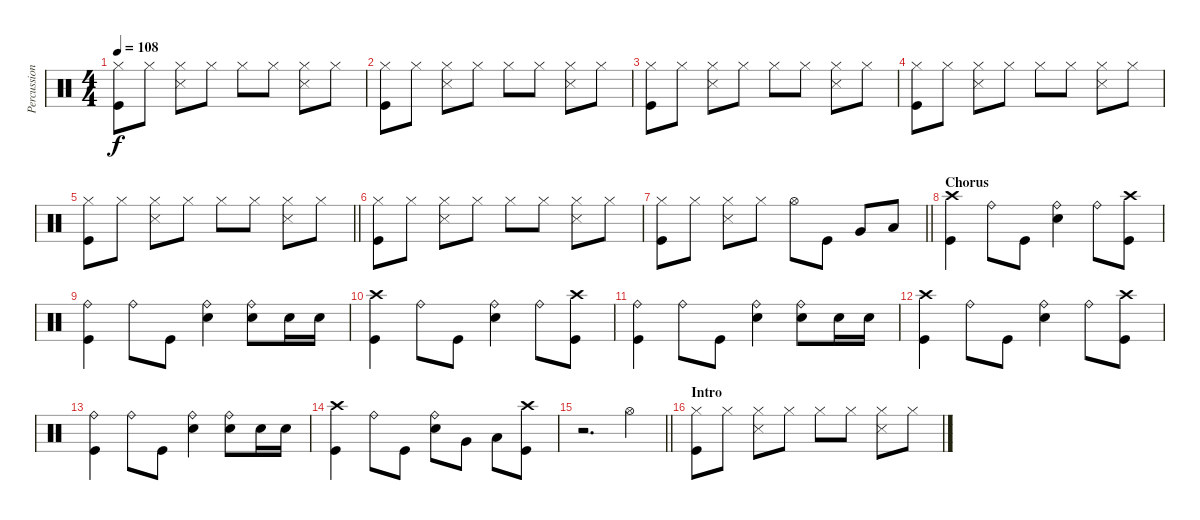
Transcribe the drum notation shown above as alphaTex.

\track ("Percussion" "Percussion") {instrument percussion}
\staff {score}
\articulation defaults
\ts (4 4)
\tempo 108
\clef neutral
\ks c
("Hi-Hat (closed)" "Kick (hit)").8{dy f} "Hi-Hat (closed)".8 ("Hi-Hat (closed)" "Snare (side stick) 3").8 "Hi-Hat (closed)".8 "Hi-Hat (closed)".8 "Hi-Hat (closed)".8 ("Hi-Hat (closed)" "Snare (side stick) 3").8 "Hi-Hat (closed)".8 |
("Hi-Hat (closed)" "Kick (hit)").8 "Hi-Hat (closed)".8 ("Hi-Hat (closed)" "Snare (side stick) 3").8 "Hi-Hat (closed)".8 "Hi-Hat (closed)".8 "Hi-Hat (closed)".8 ("Hi-Hat (closed)" "Snare (side stick) 3").8 "Hi-Hat (closed)".8 |
("Hi-Hat (closed)" "Kick (hit)").8 "Hi-Hat (closed)".8 ("Hi-Hat (closed)" "Snare (side stick) 3").8 "Hi-Hat (closed)".8 "Hi-Hat (closed)".8 "Hi-Hat (closed)".8 ("Hi-Hat (closed)" "Snare (side stick) 3").8 "Hi-Hat (closed)".8 |
("Hi-Hat (closed)" "Kick (hit)").8 "Hi-Hat (closed)".8 ("Hi-Hat (closed)" "Snare (side stick) 3").8 "Hi-Hat (closed)".8 "Hi-Hat (closed)".8 "Hi-Hat (closed)".8 ("Hi-Hat (closed)" "Snare (side stick) 3").8 "Hi-Hat (closed)".8 |
\barLineRight lightlight
("Hi-Hat (closed)" "Kick (hit)").8 "Hi-Hat (closed)".8 ("Hi-Hat (closed)" "Snare (side stick) 3").8 "Hi-Hat (closed)".8 "Hi-Hat (closed)".8 "Hi-Hat (closed)".8 ("Hi-Hat (closed)" "Snare (side stick) 3").8 "Hi-Hat (closed)".8 |
("Hi-Hat (closed)" "Kick (hit)").8 "Hi-Hat (closed)".8 ("Hi-Hat (closed)" "Snare (side stick) 3").8 "Hi-Hat (closed)".8 "Hi-Hat (closed)".8 "Hi-Hat (closed)".8 ("Hi-Hat (closed)" "Snare (side stick) 3").8 "Hi-Hat (closed)".8 |
\barLineRight lightlight
("Hi-Hat (closed)" "Kick (hit)").8 "Hi-Hat (closed)".8 ("Hi-Hat (closed)" "Snare (side stick) 3").8 "Hi-Hat (closed)".8 "Hi-Hat (open)".8 "Kick (hit)".8 "Very Low Tom (hit)".8 "Low Floor Tom (hit)".8 |
\section ("" "Chorus")
("Crash high (hit)" "Kick (hit)").4 "Ride (bell)".8 "Kick (hit)".8 ("Ride (bell)" "Snare (hit) 2").4 "Ride (bell)".8 ("Crash high (hit)" "Kick (hit)").8 |
("Ride (bell)" "Kick (hit)").4 "Ride (bell)".8 "Kick (hit)".8 ("Ride (bell)" "Snare (hit) 2").4 ("Ride (bell)" "Snare (hit) 2").8 "Snare (hit) 2".16 "Snare (hit) 2".16 |
("Crash high (hit)" "Kick (hit)").4 "Ride (bell)".8 "Kick (hit)".8 ("Ride (bell)" "Snare (hit) 2").4 "Ride (bell)".8 ("Crash high (hit)" "Kick (hit)").8 |
("Ride (bell)" "Kick (hit)").4 "Ride (bell)".8 "Kick (hit)".8 ("Ride (bell)" "Snare (hit) 2").4 ("Ride (bell)" "Snare (hit) 2").8 "Snare (hit) 2".16 "Snare (hit) 2".16 |
("Crash high (hit)" "Kick (hit)").4 "Ride (bell)".8 "Kick (hit)".8 ("Ride (bell)" "Snare (hit) 2").4 "Ride (bell)".8 ("Crash high (hit)" "Kick (hit)").8 |
("Ride (bell)" "Kick (hit)").4 "Ride (bell)".8 "Kick (hit)".8 ("Ride (bell)" "Snare (hit) 2").4 ("Ride (bell)" "Snare (hit) 2").8 "Snare (hit) 2".16 "Snare (hit) 2".16 |
("Crash high (hit)" "Kick (hit)").4 "Ride (bell)".8 "Kick (hit)".8 ("Ride (bell)" "Snare (hit) 2").8 "Very Low Tom (hit)".8 "Low Floor Tom (hit)".8 ("Crash high (hit)" "Kick (hit)").8 |
\barLineRight lightlight
r.2{d} "Hi-Hat (open)".4 |
\section ("" "Intro")
("Hi-Hat (closed)" "Kick (hit)").8 "Hi-Hat (closed)".8 ("Hi-Hat (closed)" "Snare (side stick) 3").8 "Hi-Hat (closed)".8 "Hi-Hat (closed)".8 "Hi-Hat (closed)".8 ("Hi-Hat (closed)" "Snare (side stick) 3").8 "Hi-Hat (closed)".8
